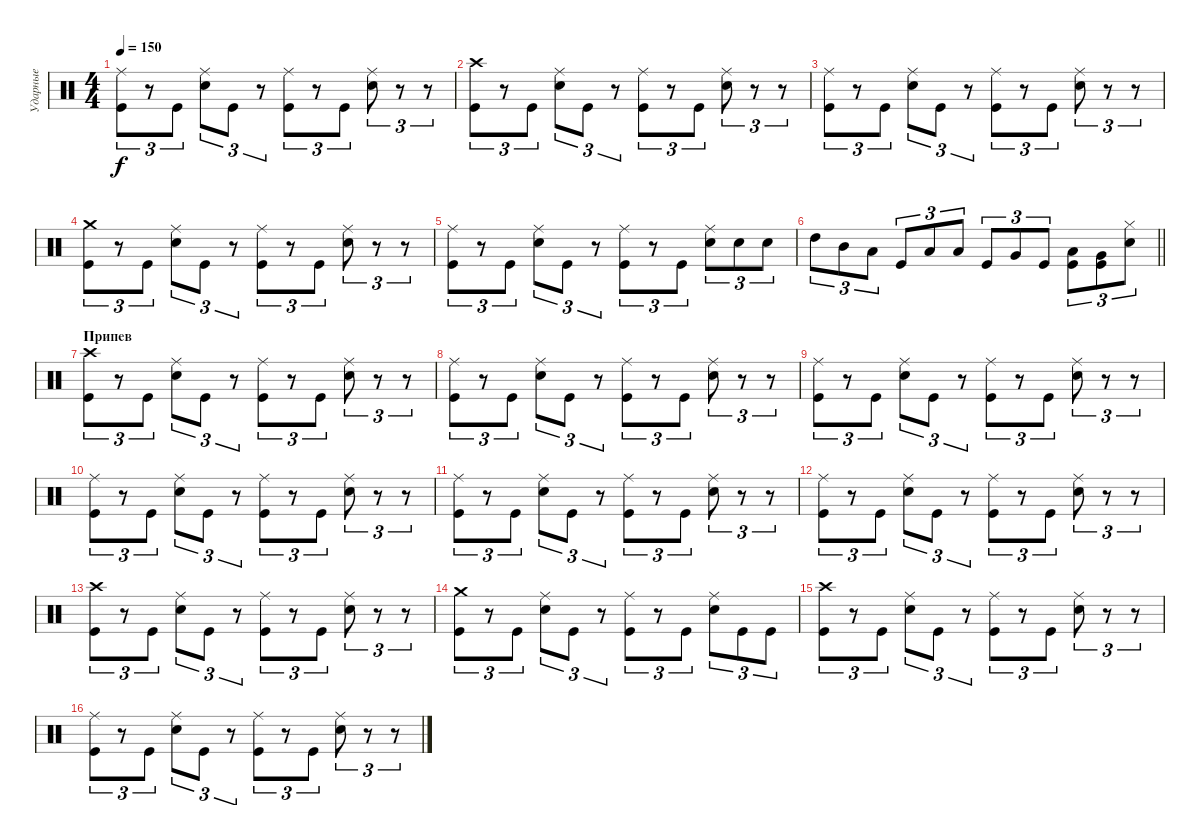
\track ("Ударные" "Ударные") {instrument percussion}
\staff {score}
\articulation defaults
\ts (4 4)
\tempo 150
\clef neutral
\ks c
("Ride (middle)" "Kick (hit)").8{tu (3 2) dy f} r.8{tu (3 2)} "Kick (hit)".8{tu (3 2)} ("Ride (middle)" "Snare (hit) 2").8{tu (3 2)} "Kick (hit)".8{tu (3 2)} r.8{tu (3 2)} ("Ride (middle)" "Kick (hit)").8{tu (3 2)} r.8{tu (3 2)} "Kick (hit)".8{tu (3 2)} ("Ride (middle)" "Snare (hit) 2").8{tu (3 2)} r.8{tu (3 2)} r.8{tu (3 2)} |
("Crash high (hit)" "Kick (hit)").8{tu (3 2)} r.8{tu (3 2)} "Kick (hit)".8{tu (3 2)} ("Ride (middle)" "Snare (hit) 2").8{tu (3 2)} "Kick (hit)".8{tu (3 2)} r.8{tu (3 2)} ("Ride (middle)" "Kick (hit)").8{tu (3 2)} r.8{tu (3 2)} "Kick (hit)".8{tu (3 2)} ("Ride (middle)" "Snare (hit) 2").8{tu (3 2)} r.8{tu (3 2)} r.8{tu (3 2)} |
("Ride (middle)" "Kick (hit)").8{tu (3 2)} r.8{tu (3 2)} "Kick (hit)".8{tu (3 2)} ("Ride (middle)" "Snare (hit) 2").8{tu (3 2)} "Kick (hit)".8{tu (3 2)} r.8{tu (3 2)} ("Ride (middle)" "Kick (hit)").8{tu (3 2)} r.8{tu (3 2)} "Kick (hit)".8{tu (3 2)} ("Ride (middle)" "Snare (hit) 2").8{tu (3 2)} r.8{tu (3 2)} r.8{tu (3 2)} |
("Crash medium (hit)" "Kick (hit)").8{tu (3 2)} r.8{tu (3 2)} "Kick (hit)".8{tu (3 2)} ("Ride (middle)" "Snare (hit) 2").8{tu (3 2)} "Kick (hit)".8{tu (3 2)} r.8{tu (3 2)} ("Ride (middle)" "Kick (hit)").8{tu (3 2)} r.8{tu (3 2)} "Kick (hit)".8{tu (3 2)} ("Ride (middle)" "Snare (hit) 2").8{tu (3 2)} r.8{tu (3 2)} r.8{tu (3 2)} |
("Ride (middle)" "Kick (hit)").8{tu (3 2)} r.8{tu (3 2)} "Kick (hit)".8{tu (3 2)} ("Ride (middle)" "Snare (hit) 2").8{tu (3 2)} "Kick (hit)".8{tu (3 2)} r.8{tu (3 2)} ("Ride (middle)" "Kick (hit)").8{tu (3 2)} r.8{tu (3 2)} "Kick (hit)".8{tu (3 2)} ("Ride (middle)" "Snare (hit) 2").8{tu (3 2)} "Snare (hit) 2".8{tu (3 2)} "Snare (hit) 2".8{tu (3 2)} |
\barLineRight lightlight "High Tom (hit)".8{tu (3 2)} "Mid Tom (hit)".8{tu (3 2)} "Low Tom (hit)".8{tu (3 2)} "Kick (hit)".8{tu (3 2)} "Low Tom (hit)".8{tu (3 2)} "Low Tom (hit)".8{tu (3 2)} "Kick (hit)".8{tu (3 2)} "Very Low Tom (hit)".8{tu (3 2)} "Kick (hit)".8{tu (3 2)}
("Low Tom (hit)" "Kick (hit)").8{tu (3 2)} ("Very Low Tom (hit)" "Kick (hit)").8{tu (3 2)} ("Hi-Hat (closed)" "Snare (hit) 2").8{tu (3 2)} |
\section ("" "Припев")
("Crash high (hit)" "Kick (hit)").8{tu (3 2)} r.8{tu (3 2)} "Kick (hit)".8{tu (3 2)} ("Ride (middle)" "Snare (hit) 2").8{tu (3 2)} "Kick (hit)".8{tu (3 2)} r.8{tu (3 2)} ("Ride (middle)" "Kick (hit)").8{tu (3 2)} r.8{tu (3 2)} "Kick (hit)".8{tu (3 2)} ("Ride (middle)" "Snare (hit) 2").8{tu (3 2)} r.8{tu (3 2)} r.8{tu (3 2)} |
("Ride (middle)" "Kick (hit)").8{tu (3 2)} r.8{tu (3 2)} "Kick (hit)".8{tu (3 2)} ("Ride (middle)" "Snare (hit) 2").8{tu (3 2)} "Kick (hit)".8{tu (3 2)} r.8{tu (3 2)} ("Ride (middle)" "Kick (hit)").8{tu (3 2)} r.8{tu (3 2)} "Kick (hit)".8{tu (3 2)} ("Ride (middle)" "Snare (hit) 2").8{tu (3 2)} r.8{tu (3 2)} r.8{tu (3 2)} |
("Ride (middle)" "Kick (hit)").8{tu (3 2)} r.8{tu (3 2)} "Kick (hit)".8{tu (3 2)} ("Ride (middle)" "Snare (hit) 2").8{tu (3 2)} "Kick (hit)".8{tu (3 2)} r.8{tu (3 2)} ("Ride (middle)" "Kick (hit)").8{tu (3 2)} r.8{tu (3 2)} "Kick (hit)".8{tu (3 2)} ("Ride (middle)" "Snare (hit) 2").8{tu (3 2)} r.8{tu (3 2)} r.8{tu (3 2)} |
("Ride (middle)" "Kick (hit)").8{tu (3 2)} r.8{tu (3 2)} "Kick (hit)".8{tu (3 2)} ("Ride (middle)" "Snare (hit) 2").8{tu (3 2)} "Kick (hit)".8{tu (3 2)} r.8{tu (3 2)} ("Ride (middle)" "Kick (hit)").8{tu (3 2)} r.8{tu (3 2)} "Kick (hit)".8{tu (3 2)} ("Ride (middle)" "Snare (hit) 2").8{tu (3 2)} r.8{tu (3 2)} r.8{tu (3 2)} |
("Ride (middle)" "Kick (hit)").8{tu (3 2)} r.8{tu (3 2)} "Kick (hit)".8{tu (3 2)} ("Ride (middle)" "Snare (hit) 2").8{tu (3 2)} "Kick (hit)".8{tu (3 2)} r.8{tu (3 2)} ("Ride (middle)" "Kick (hit)").8{tu (3 2)} r.8{tu (3 2)} "Kick (hit)".8{tu (3 2)} ("Ride (middle)" "Snare (hit) 2").8{tu (3 2)} r.8{tu (3 2)} r.8{tu (3 2)} |
("Ride (middle)" "Kick (hit)").8{tu (3 2)} r.8{tu (3 2)} "Kick (hit)".8{tu (3 2)} ("Ride (middle)" "Snare (hit) 2").8{tu (3 2)} "Kick (hit)".8{tu (3 2)} r.8{tu (3 2)} ("Ride (middle)" "Kick (hit)").8{tu (3 2)} r.8{tu (3 2)} "Kick (hit)".8{tu (3 2)} ("Ride (middle)" "Snare (hit) 2").8{tu (3 2)} r.8{tu (3 2)} r.8{tu (3 2)} |
("Crash high (hit)" "Kick (hit)").8{tu (3 2)} r.8{tu (3 2)} "Kick (hit)".8{tu (3 2)} ("Ride (middle)" "Snare (hit) 2").8{tu (3 2)} "Kick (hit)".8{tu (3 2)} r.8{tu (3 2)} ("Ride (middle)" "Kick (hit)").8{tu (3 2)} r.8{tu (3 2)} "Kick (hit)".8{tu (3 2)} ("Ride (middle)" "Snare (hit) 2").8{tu (3 2)} r.8{tu (3 2)} r.8{tu (3 2)} |
("Crash medium (hit)" "Kick (hit)").8{tu (3 2)} r.8{tu (3 2)} "Kick (hit)".8{tu (3 2)} ("Ride (middle)" "Snare (hit) 2").8{tu (3 2)} "Kick (hit)".8{tu (3 2)} r.8{tu (3 2)} ("Ride (middle)" "Kick (hit)").8{tu (3 2)} r.8{tu (3 2)} "Kick (hit)".8{tu (3 2)} ("Ride (middle)" "Snare (hit) 2").8{tu (3 2)} "Kick (hit)".8{tu (3 2)} "Kick (hit)".8{tu (3 2)} |
("Crash high (hit)" "Kick (hit)").8{tu (3 2)} r.8{tu (3 2)} "Kick (hit)".8{tu (3 2)} ("Ride (middle)" "Snare (hit) 2").8{tu (3 2)} "Kick (hit)".8{tu (3 2)} r.8{tu (3 2)} ("Ride (middle)" "Kick (hit)").8{tu (3 2)} r.8{tu (3 2)} "Kick (hit)".8{tu (3 2)} ("Ride (middle)" "Snare (hit) 2").8{tu (3 2)} r.8{tu (3 2)} r.8{tu (3 2)} |
("Ride (middle)" "Kick (hit)").8{tu (3 2)} r.8{tu (3 2)} "Kick (hit)".8{tu (3 2)} ("Ride (middle)" "Snare (hit) 2").8{tu (3 2)} "Kick (hit)".8{tu (3 2)} r.8{tu (3 2)} ("Ride (middle)" "Kick (hit)").8{tu (3 2)} r.8{tu (3 2)} "Kick (hit)".8{tu (3 2)} ("Ride (middle)" "Snare (hit) 2").8{tu (3 2)} r.8{tu (3 2)} r.8{tu (3 2)}
